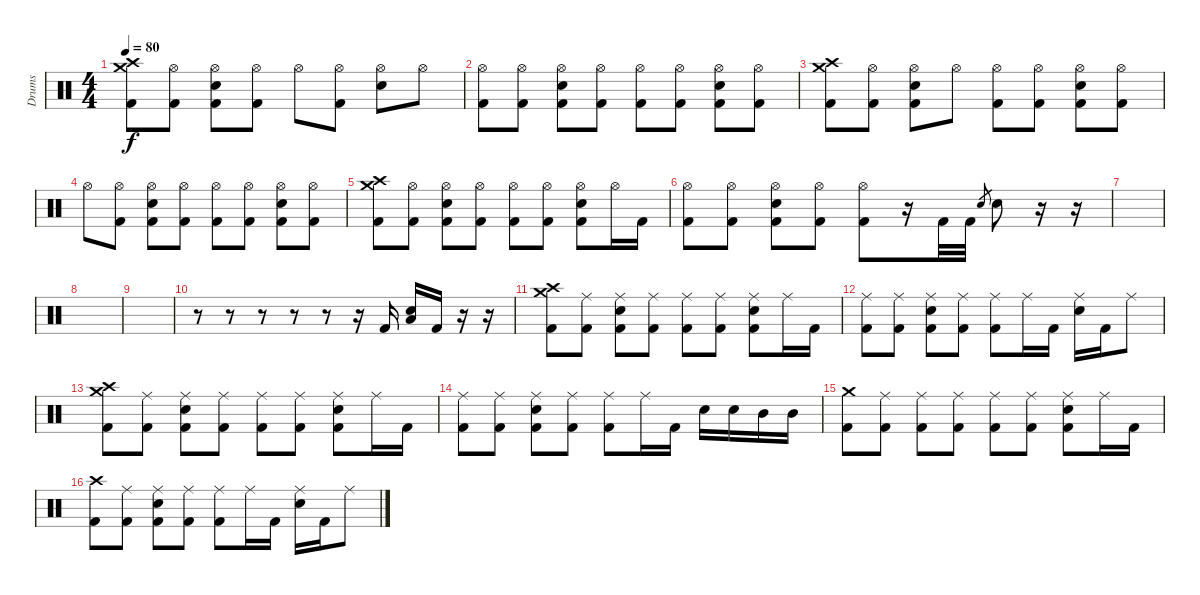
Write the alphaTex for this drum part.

\track ("Drums" "Drums") {instrument percussion}
\staff {score}
\articulation defaults
\ts (4 4)
\tempo 80
\clef neutral
\ks c
("Crash high (hit)" "Crash medium (hit)" "Kick (hit) 2").8{dy f} ("Hi-Hat (open)" "Kick (hit) 2").8 ("Hi-Hat (open)" "Electric Snare (hit)" "Kick (hit) 2").8 ("Hi-Hat (open)" "Kick (hit) 2").8 "Hi-Hat (open)".8 ("Hi-Hat (open)" "Kick (hit) 2").8 ("Hi-Hat (open)" "Electric Snare (hit)").8 "Hi-Hat (open)".8 |
("Hi-Hat (open)" "Kick (hit) 2").8 ("Hi-Hat (open)" "Kick (hit) 2").8 ("Hi-Hat (open)" "Electric Snare (hit)" "Kick (hit) 2").8 ("Hi-Hat (open)" "Kick (hit) 2").8 ("Hi-Hat (open)" "Kick (hit) 2").8 ("Hi-Hat (open)" "Kick (hit) 2").8 ("Hi-Hat (open)" "Electric Snare (hit)" "Kick (hit) 2").8 ("Hi-Hat (open)" "Kick (hit) 2").8 |
("Crash high (hit)" "Crash medium (hit)" "Kick (hit) 2").8 ("Hi-Hat (open)" "Kick (hit) 2").8 ("Hi-Hat (open)" "Electric Snare (hit)" "Kick (hit) 2").8 "Hi-Hat (open)".8 ("Hi-Hat (open)" "Kick (hit) 2").8 ("Hi-Hat (open)" "Kick (hit) 2").8 ("Hi-Hat (open)" "Electric Snare (hit)" "Kick (hit) 2").8 ("Hi-Hat (open)" "Kick (hit) 2").8 |
"Hi-Hat (open)".8 ("Hi-Hat (open)" "Kick (hit) 2").8 ("Hi-Hat (open)" "Electric Snare (hit)" "Kick (hit) 2").8 ("Hi-Hat (open)" "Kick (hit) 2").8 ("Hi-Hat (open)" "Kick (hit) 2").8 ("Hi-Hat (open)" "Kick (hit) 2").8 ("Hi-Hat (open)" "Electric Snare (hit)" "Kick (hit) 2").8 ("Hi-Hat (open)" "Kick (hit) 2").8 |
("Crash high (hit)" "Crash medium (hit)" "Kick (hit) 2").8 ("Hi-Hat (open)" "Kick (hit) 2").8 ("Hi-Hat (open)" "Electric Snare (hit)" "Kick (hit) 2").8 ("Hi-Hat (open)" "Kick (hit) 2").8 ("Hi-Hat (open)" "Kick (hit) 2").8 ("Hi-Hat (open)" "Kick (hit) 2").8 ("Hi-Hat (open)" "Electric Snare (hit)" "Kick (hit) 2").8 "Hi-Hat (open)".16 "Kick (hit) 2".16 |
("Hi-Hat (open)" "Kick (hit) 2").8 ("Hi-Hat (open)" "Kick (hit) 2").8 ("Hi-Hat (open)" "Electric Snare (hit)" "Kick (hit) 2").8 ("Hi-Hat (open)" "Kick (hit) 2").8 ("Hi-Hat (open)" "Kick (hit) 2").8 r.16 "Kick (hit) 2".32 "Kick (hit) 2".32 "Electric Snare (hit)".8{gr} "Electric Snare (hit)".8 r.16 r.16 |
|
|
|
r.8 r.8 r.8 r.8 r.8 r.16 "Kick (hit) 2".16 ("Low Floor Tom (hit)" "Electric Snare (hit)").16 "Kick (hit) 2".16 r.16 r.16 |
("Crash high (hit)" "Crash medium (hit)" "Kick (hit) 2").8 ("Ride (middle)" "Kick (hit) 2").8 ("Ride (middle)" "Electric Snare (hit)" "Kick (hit) 2").8 ("Ride (middle)" "Kick (hit) 2").8 ("Ride (middle)" "Kick (hit) 2").8 ("Ride (middle)" "Kick (hit) 2").8 ("Ride (middle)" "Electric Snare (hit)" "Kick (hit) 2").8 "Ride (middle)".16 "Kick (hit) 2".16 |
("Ride (middle)" "Kick (hit) 2").8 ("Ride (middle)" "Kick (hit) 2").8 ("Ride (middle)" "Electric Snare (hit)" "Kick (hit) 2").8 ("Ride (middle)" "Kick (hit) 2").8 ("Ride (middle)" "Kick (hit) 2").8 "Ride (middle)".16 "Kick (hit) 2".16 ("Ride (middle)" "Electric Snare (hit)").16 "Kick (hit) 2".16 "Ride (middle)".8 |
("Crash high (hit)" "Crash medium (hit)" "Kick (hit) 2").8 ("Ride (middle)" "Kick (hit) 2").8 ("Ride (middle)" "Electric Snare (hit)" "Kick (hit) 2").8 ("Ride (middle)" "Kick (hit) 2").8 ("Ride (middle)" "Kick (hit) 2").8 ("Ride (middle)" "Kick (hit) 2").8 ("Ride (middle)" "Electric Snare (hit)" "Kick (hit) 2").8 "Ride (middle)".16 "Kick (hit) 2".16 |
("Ride (middle)" "Kick (hit) 2").8 ("Ride (middle)" "Kick (hit) 2").8 ("Ride (middle)" "Electric Snare (hit)" "Kick (hit) 2").8 ("Ride (middle)" "Kick (hit) 2").8 ("Ride (middle)" "Kick (hit) 2").8 "Ride (middle)".16 "Kick (hit) 2".16 "Electric Snare (hit)".16 "Electric Snare (hit)".16 "Mid Tom (hit)".16 "Mid Tom (hit)".16 |
("Crash medium (hit)" "Kick (hit) 2").8 ("Ride (middle)" "Kick (hit) 2").8 ("Ride (middle)" "Kick (hit) 2").8 ("Ride (middle)" "Kick (hit) 2").8 ("Ride (middle)" "Kick (hit) 2").8 ("Ride (middle)" "Kick (hit) 2").8 ("Ride (middle)" "Electric Snare (hit)" "Kick (hit) 2").8 "Ride (middle)".16 "Kick (hit) 2".16 |
("Crash high (hit)" "Kick (hit) 2").8 ("Ride (middle)" "Kick (hit) 2").8 ("Ride (middle)" "Electric Snare (hit)" "Kick (hit) 2").8 ("Ride (middle)" "Kick (hit) 2").8 ("Ride (middle)" "Kick (hit) 2").8 "Ride (middle)".16 "Kick (hit) 2".16 ("Ride (middle)" "Electric Snare (hit)").16 "Kick (hit) 2".16 "Ride (middle)".8
